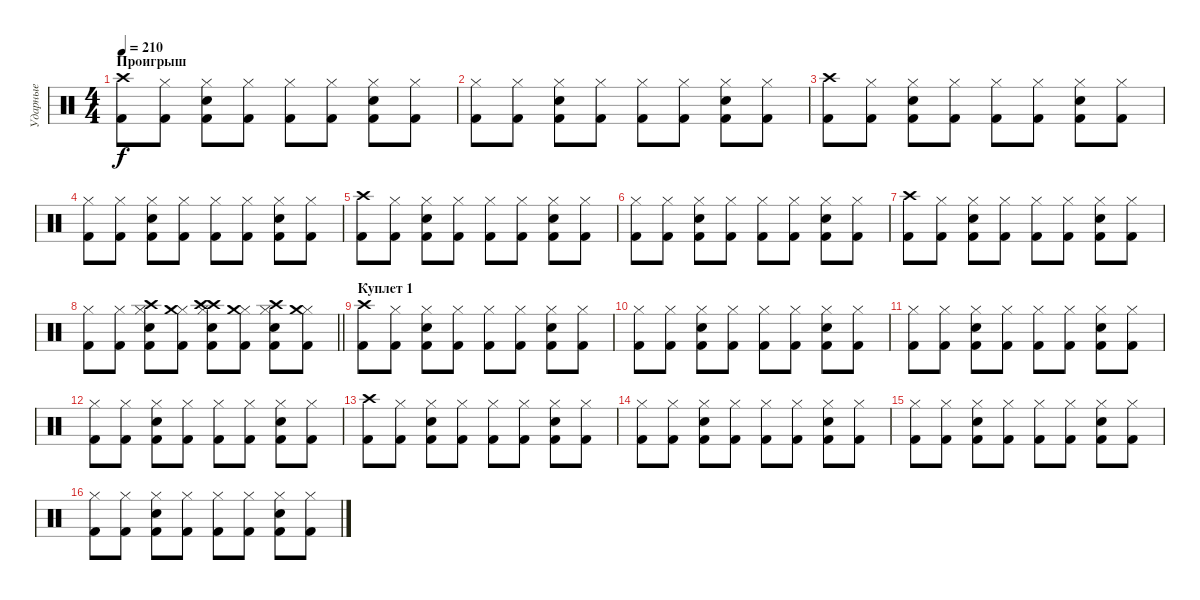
\track ("Ударные" "Ударные") {instrument percussion}
\staff {score}
\articulation defaults
\ts (4 4)
\section ("" "Проигрыш")
\tempo 210
\clef neutral
\ks c
("Crash high (hit)" "Kick (hit) 2").8{dy f} ("Hi-Hat (closed)" "Kick (hit) 2").8 ("Hi-Hat (closed)" "Electric Snare (hit)" "Kick (hit) 2").8 ("Hi-Hat (closed)" "Kick (hit) 2").8 ("Hi-Hat (closed)" "Kick (hit) 2").8 ("Hi-Hat (closed)" "Kick (hit) 2").8 ("Hi-Hat (closed)" "Electric Snare (hit)" "Kick (hit) 2").8 ("Hi-Hat (closed)" "Kick (hit) 2").8 |
("Hi-Hat (closed)" "Kick (hit) 2").8 ("Hi-Hat (closed)" "Kick (hit) 2").8 ("Hi-Hat (closed)" "Electric Snare (hit)" "Kick (hit) 2").8 ("Hi-Hat (closed)" "Kick (hit) 2").8 ("Hi-Hat (closed)" "Kick (hit) 2").8 ("Hi-Hat (closed)" "Kick (hit) 2").8 ("Hi-Hat (closed)" "Electric Snare (hit)" "Kick (hit) 2").8 ("Hi-Hat (closed)" "Kick (hit) 2").8 |
("Crash high (hit)" "Kick (hit) 2").8 ("Hi-Hat (closed)" "Kick (hit) 2").8 ("Hi-Hat (closed)" "Electric Snare (hit)" "Kick (hit) 2").8 ("Hi-Hat (closed)" "Kick (hit) 2").8 ("Hi-Hat (closed)" "Kick (hit) 2").8 ("Hi-Hat (closed)" "Kick (hit) 2").8 ("Hi-Hat (closed)" "Electric Snare (hit)" "Kick (hit) 2").8 ("Hi-Hat (closed)" "Kick (hit) 2").8 |
("Hi-Hat (closed)" "Kick (hit) 2").8 ("Hi-Hat (closed)" "Kick (hit) 2").8 ("Hi-Hat (closed)" "Electric Snare (hit)" "Kick (hit) 2").8 ("Hi-Hat (closed)" "Kick (hit) 2").8 ("Hi-Hat (closed)" "Kick (hit) 2").8 ("Hi-Hat (closed)" "Kick (hit) 2").8 ("Hi-Hat (closed)" "Electric Snare (hit)" "Kick (hit) 2").8 ("Hi-Hat (closed)" "Kick (hit) 2").8 |
("Crash high (hit)" "Kick (hit) 2").8 ("Hi-Hat (closed)" "Kick (hit) 2").8 ("Hi-Hat (closed)" "Electric Snare (hit)" "Kick (hit) 2").8 ("Hi-Hat (closed)" "Kick (hit) 2").8 ("Hi-Hat (closed)" "Kick (hit) 2").8 ("Hi-Hat (closed)" "Kick (hit) 2").8 ("Hi-Hat (closed)" "Electric Snare (hit)" "Kick (hit) 2").8 ("Hi-Hat (closed)" "Kick (hit) 2").8 |
("Hi-Hat (closed)" "Kick (hit) 2").8 ("Hi-Hat (closed)" "Kick (hit) 2").8 ("Hi-Hat (closed)" "Electric Snare (hit)" "Kick (hit) 2").8 ("Hi-Hat (closed)" "Kick (hit) 2").8 ("Hi-Hat (closed)" "Kick (hit) 2").8 ("Hi-Hat (closed)" "Kick (hit) 2").8 ("Hi-Hat (closed)" "Electric Snare (hit)" "Kick (hit) 2").8 ("Hi-Hat (closed)" "Kick (hit) 2").8 |
("Crash high (hit)" "Kick (hit) 2").8 ("Hi-Hat (closed)" "Kick (hit) 2").8 ("Hi-Hat (closed)" "Electric Snare (hit)" "Kick (hit) 2").8 ("Hi-Hat (closed)" "Kick (hit) 2").8 ("Hi-Hat (closed)" "Kick (hit) 2").8 ("Hi-Hat (closed)" "Kick (hit) 2").8 ("Hi-Hat (closed)" "Electric Snare (hit)" "Kick (hit) 2").8 ("Hi-Hat (closed)" "Kick (hit) 2").8 |
\barLineRight lightlight
("Hi-Hat (closed)" "Kick (hit) 2").8 ("Hi-Hat (closed)" "Kick (hit) 2").8 ("Hi-Hat (closed)" "Electric Snare (hit)" "Kick (hit) 2" "Crash high (hit)").8 ("Hi-Hat (closed)" "Crash medium (hit)" "Kick (hit) 2").8 ("Hi-Hat (closed)" "Electric Snare (hit)" "Kick (hit) 2" "Crash high (hit)" "Crash high (hit)").8 ("Hi-Hat (closed)" "Crash medium (hit)" "Kick (hit) 2").8 ("Hi-Hat (closed)" "Electric Snare (hit)" "Kick (hit) 2" "Crash high (hit)").8 ("Hi-Hat (closed)" "Crash medium (hit)" "Kick (hit) 2").8 |
\section ("" "Куплет 1")
("Crash high (hit)" "Kick (hit) 2").8 ("Hi-Hat (closed)" "Kick (hit) 2").8 ("Hi-Hat (closed)" "Electric Snare (hit)" "Kick (hit) 2").8 ("Hi-Hat (closed)" "Kick (hit) 2").8 ("Hi-Hat (closed)" "Kick (hit) 2").8 ("Hi-Hat (closed)" "Kick (hit) 2").8 ("Hi-Hat (closed)" "Electric Snare (hit)" "Kick (hit) 2").8 ("Hi-Hat (closed)" "Kick (hit) 2").8 |
("Hi-Hat (closed)" "Kick (hit) 2").8 ("Hi-Hat (closed)" "Kick (hit) 2").8 ("Hi-Hat (closed)" "Electric Snare (hit)" "Kick (hit) 2").8 ("Hi-Hat (closed)" "Kick (hit) 2").8 ("Hi-Hat (closed)" "Kick (hit) 2").8 ("Hi-Hat (closed)" "Kick (hit) 2").8 ("Hi-Hat (closed)" "Electric Snare (hit)" "Kick (hit) 2").8 ("Hi-Hat (closed)" "Kick (hit) 2").8 |
("Hi-Hat (closed)" "Kick (hit) 2").8 ("Hi-Hat (closed)" "Kick (hit) 2").8 ("Hi-Hat (closed)" "Electric Snare (hit)" "Kick (hit) 2").8 ("Hi-Hat (closed)" "Kick (hit) 2").8 ("Hi-Hat (closed)" "Kick (hit) 2").8 ("Hi-Hat (closed)" "Kick (hit) 2").8 ("Hi-Hat (closed)" "Electric Snare (hit)" "Kick (hit) 2").8 ("Hi-Hat (closed)" "Kick (hit) 2").8 |
("Hi-Hat (closed)" "Kick (hit) 2").8 ("Hi-Hat (closed)" "Kick (hit) 2").8 ("Hi-Hat (closed)" "Electric Snare (hit)" "Kick (hit) 2").8 ("Hi-Hat (closed)" "Kick (hit) 2").8 ("Hi-Hat (closed)" "Kick (hit) 2").8 ("Hi-Hat (closed)" "Kick (hit) 2").8 ("Hi-Hat (closed)" "Electric Snare (hit)" "Kick (hit) 2").8 ("Hi-Hat (closed)" "Kick (hit) 2").8 |
("Crash high (hit)" "Kick (hit) 2").8 ("Hi-Hat (closed)" "Kick (hit) 2").8 ("Hi-Hat (closed)" "Electric Snare (hit)" "Kick (hit) 2").8 ("Hi-Hat (closed)" "Kick (hit) 2").8 ("Hi-Hat (closed)" "Kick (hit) 2").8 ("Hi-Hat (closed)" "Kick (hit) 2").8 ("Hi-Hat (closed)" "Electric Snare (hit)" "Kick (hit) 2").8 ("Hi-Hat (closed)" "Kick (hit) 2").8 |
("Hi-Hat (closed)" "Kick (hit) 2").8 ("Hi-Hat (closed)" "Kick (hit) 2").8 ("Hi-Hat (closed)" "Electric Snare (hit)" "Kick (hit) 2").8 ("Hi-Hat (closed)" "Kick (hit) 2").8 ("Hi-Hat (closed)" "Kick (hit) 2").8 ("Hi-Hat (closed)" "Kick (hit) 2").8 ("Hi-Hat (closed)" "Electric Snare (hit)" "Kick (hit) 2").8 ("Hi-Hat (closed)" "Kick (hit) 2").8 |
("Hi-Hat (closed)" "Kick (hit) 2").8 ("Hi-Hat (closed)" "Kick (hit) 2").8 ("Hi-Hat (closed)" "Electric Snare (hit)" "Kick (hit) 2").8 ("Hi-Hat (closed)" "Kick (hit) 2").8 ("Hi-Hat (closed)" "Kick (hit) 2").8 ("Hi-Hat (closed)" "Kick (hit) 2").8 ("Hi-Hat (closed)" "Electric Snare (hit)" "Kick (hit) 2").8 ("Hi-Hat (closed)" "Kick (hit) 2").8 |
("Hi-Hat (closed)" "Kick (hit) 2").8 ("Hi-Hat (closed)" "Kick (hit) 2").8 ("Hi-Hat (closed)" "Electric Snare (hit)" "Kick (hit) 2").8 ("Hi-Hat (closed)" "Kick (hit) 2").8 ("Hi-Hat (closed)" "Kick (hit) 2").8 ("Hi-Hat (closed)" "Kick (hit) 2").8 ("Hi-Hat (closed)" "Electric Snare (hit)" "Kick (hit) 2").8 ("Hi-Hat (closed)" "Kick (hit) 2").8
